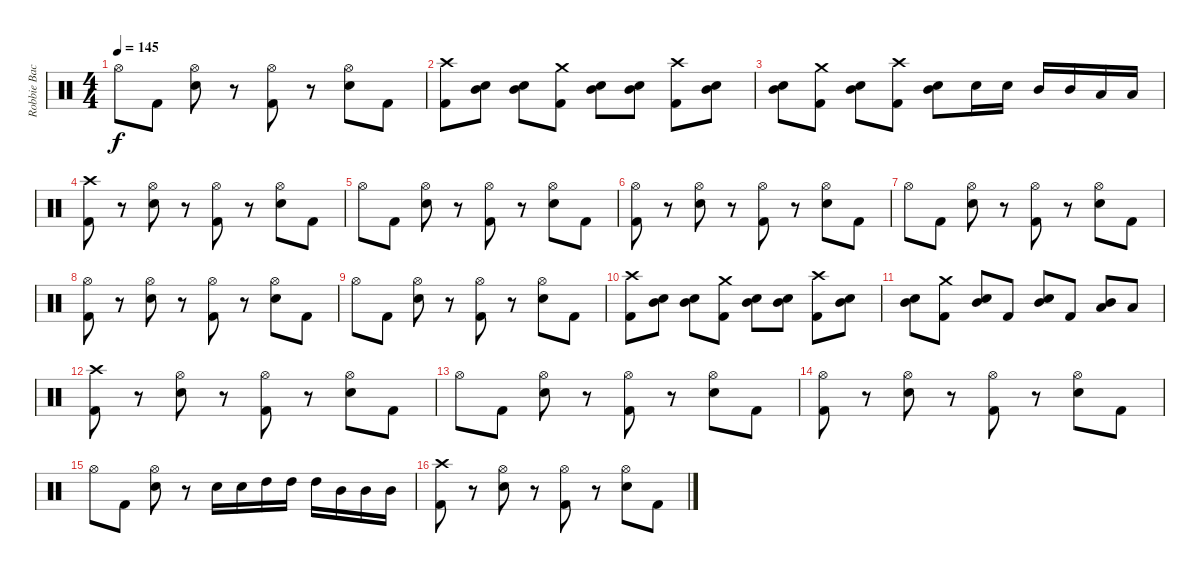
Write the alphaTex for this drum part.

\track ("Robbie Bachman" "Robbie Bac") {instrument percussion}
\staff {score}
\articulation defaults
\ts (4 4)
\tempo 145
\clef neutral
\ks c "Hi-Hat (open)".8{dy f} "Kick (hit) 2".8
("Hi-Hat (open)" "Snare (hit) 2").8 r.8 ("Hi-Hat (open)" "Kick (hit) 2").8 r.8 ("Hi-Hat (open)" "Snare (hit) 2").8 "Kick (hit) 2".8 |
("Crash high (hit)" "Kick (hit) 2").8 ("Mid Tom (hit)" "Snare (hit) 2").8 ("Mid Tom (hit)" "Snare (hit) 2").8 ("Crash medium (hit)" "Kick (hit) 2").8 ("Mid Tom (hit)" "Snare (hit) 2").8 ("Mid Tom (hit)" "Snare (hit) 2").8 ("Crash high (hit)" "Kick (hit) 2").8 ("Mid Tom (hit)" "Snare (hit) 2").8 |
("Mid Tom (hit)" "Snare (hit) 2").8 ("Crash medium (hit)" "Kick (hit) 2").8 ("Mid Tom (hit)" "Snare (hit) 2").8 ("Crash high (hit)" "Kick (hit) 2").8 ("Mid Tom (hit)" "Snare (hit) 2").8 "Snare (hit) 2".16 "Snare (hit) 2".16 "Mid Tom (hit)".16 "Mid Tom (hit)".16 "Low Tom (hit)".16 "Low Tom (hit)".16 |
("Crash high (hit)" "Kick (hit) 2").8 r.8 ("Hi-Hat (open)" "Snare (hit) 2").8 r.8 ("Hi-Hat (open)" "Kick (hit) 2").8 r.8 ("Hi-Hat (open)" "Snare (hit) 2").8 "Kick (hit) 2".8 |
"Hi-Hat (open)".8 "Kick (hit) 2".8 ("Hi-Hat (open)" "Snare (hit) 2").8 r.8 ("Hi-Hat (open)" "Kick (hit) 2").8 r.8 ("Hi-Hat (open)" "Snare (hit) 2").8 "Kick (hit) 2".8 |
("Hi-Hat (open)" "Kick (hit) 2").8 r.8 ("Hi-Hat (open)" "Snare (hit) 2").8 r.8 ("Hi-Hat (open)" "Kick (hit) 2").8 r.8 ("Hi-Hat (open)" "Snare (hit) 2").8 "Kick (hit) 2".8 |
"Hi-Hat (open)".8 "Kick (hit) 2".8 ("Hi-Hat (open)" "Snare (hit) 2").8 r.8 ("Hi-Hat (open)" "Kick (hit) 2").8 r.8 ("Hi-Hat (open)" "Snare (hit) 2").8 "Kick (hit) 2".8 |
("Hi-Hat (open)" "Kick (hit) 2").8 r.8 ("Hi-Hat (open)" "Snare (hit) 2").8 r.8 ("Hi-Hat (open)" "Kick (hit) 2").8 r.8 ("Hi-Hat (open)" "Snare (hit) 2").8 "Kick (hit) 2".8 |
"Hi-Hat (open)".8 "Kick (hit) 2".8 ("Hi-Hat (open)" "Snare (hit) 2").8 r.8 ("Hi-Hat (open)" "Kick (hit) 2").8 r.8 ("Hi-Hat (open)" "Snare (hit) 2").8 "Kick (hit) 2".8 |
("Crash high (hit)" "Kick (hit) 2").8 ("Mid Tom (hit)" "Snare (hit) 2").8 ("Mid Tom (hit)" "Snare (hit) 2").8 ("Crash medium (hit)" "Kick (hit) 2").8 ("Mid Tom (hit)" "Snare (hit) 2").8 ("Mid Tom (hit)" "Snare (hit) 2").8 ("Crash high (hit)" "Kick (hit) 2").8 ("Mid Tom (hit)" "Snare (hit) 2").8 |
("Mid Tom (hit)" "Snare (hit) 2").8 ("Crash medium (hit)" "Kick (hit) 2").8 ("Mid Tom (hit)" "Snare (hit) 2").8 "Kick (hit) 2".8 ("Mid Tom (hit)" "Snare (hit) 2").8 "Kick (hit) 2".8 ("Mid Tom (hit)" "Low Tom (hit)").8 "Low Tom (hit)".8 |
("Crash high (hit)" "Kick (hit) 2").8 r.8 ("Hi-Hat (open)" "Snare (hit) 2").8 r.8 ("Hi-Hat (open)" "Kick (hit) 2").8 r.8 ("Hi-Hat (open)" "Snare (hit) 2").8 "Kick (hit) 2".8 |
"Hi-Hat (open)".8 "Kick (hit) 2".8 ("Hi-Hat (open)" "Snare (hit) 2").8 r.8 ("Hi-Hat (open)" "Kick (hit) 2").8 r.8 ("Hi-Hat (open)" "Snare (hit) 2").8 "Kick (hit) 2".8 |
("Hi-Hat (open)" "Kick (hit) 2").8 r.8 ("Hi-Hat (open)" "Snare (hit) 2").8 r.8 ("Hi-Hat (open)" "Kick (hit) 2").8 r.8 ("Hi-Hat (open)" "Snare (hit) 2").8 "Kick (hit) 2".8 |
"Hi-Hat (open)".8 "Kick (hit) 2".8 ("Hi-Hat (open)" "Snare (hit) 2").8 r.8 "Snare (hit) 2".16 "Snare (hit) 2".16 "High Tom (hit)".16 "High Tom (hit)".16 "High Tom (hit)".16 "Mid Tom (hit)".16 "Mid Tom (hit)".16 "Mid Tom (hit)".16 |
("Crash high (hit)" "Kick (hit) 2").8 r.8 ("Hi-Hat (open)" "Snare (hit) 2").8 r.8 ("Hi-Hat (open)" "Kick (hit) 2").8 r.8 ("Hi-Hat (open)" "Snare (hit) 2").8 "Kick (hit) 2".8
